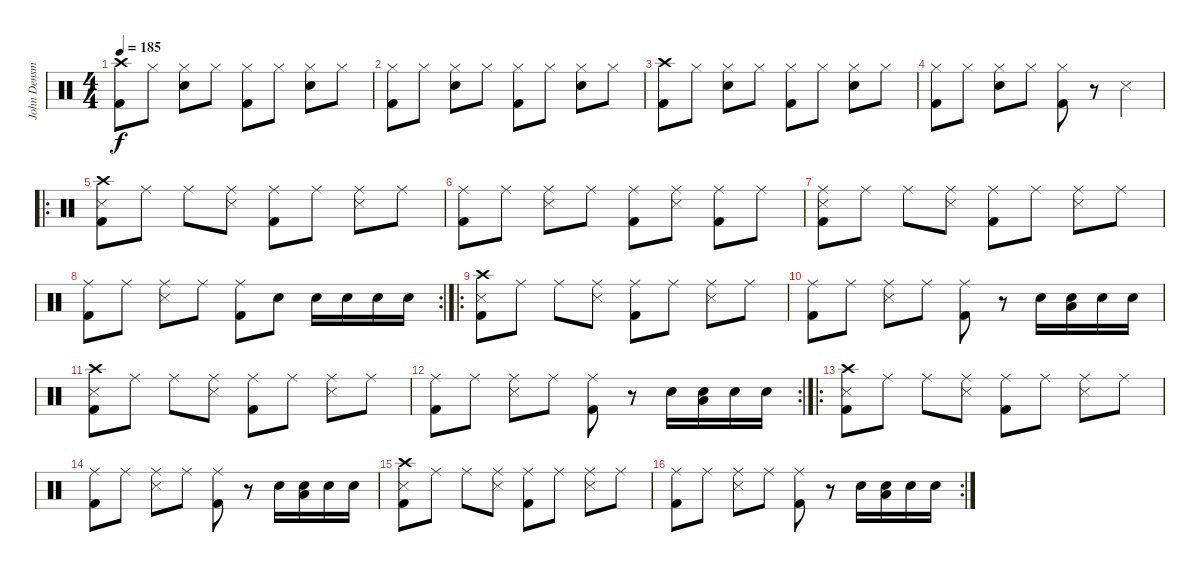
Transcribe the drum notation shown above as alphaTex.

\track ("John Densmore - Drums" "John Densm") {instrument percussion}
\staff {score}
\articulation defaults
\ts (4 4)
\tempo 185
\clef neutral
\ks c
("Crash high (hit)" "Kick (hit) 2").8{dy f} "Hi-Hat (closed)".8 ("Hi-Hat (closed)" "Snare (hit) 2").8 "Hi-Hat (closed)".8 ("Hi-Hat (closed)" "Kick (hit) 2").8 "Hi-Hat (closed)".8 ("Hi-Hat (closed)" "Snare (hit) 2").8 "Hi-Hat (closed)".8 |
("Hi-Hat (closed)" "Kick (hit) 2").8 "Hi-Hat (closed)".8 ("Hi-Hat (closed)" "Snare (hit) 2").8 "Hi-Hat (closed)".8 ("Hi-Hat (closed)" "Kick (hit) 2").8 "Hi-Hat (closed)".8 ("Hi-Hat (closed)" "Snare (hit) 2").8 "Hi-Hat (closed)".8 |
("Crash high (hit)" "Kick (hit) 2").8 "Hi-Hat (closed)".8 ("Hi-Hat (closed)" "Snare (hit) 2").8 "Hi-Hat (closed)".8 ("Hi-Hat (closed)" "Kick (hit) 2").8 "Hi-Hat (closed)".8 ("Hi-Hat (closed)" "Snare (hit) 2").8 "Hi-Hat (closed)".8 |
("Hi-Hat (closed)" "Kick (hit) 2").8 "Hi-Hat (closed)".8 ("Hi-Hat (closed)" "Snare (hit) 2").8 "Hi-Hat (closed)".8 ("Hi-Hat (closed)" "Kick (hit) 2").8 r.8 "Snare (side stick) 3".4 |
\ro
("Crash high (hit)" "Snare (side stick) 3" "Kick (hit) 2").8 "Ride (middle)".8 "Ride (middle)".8 ("Ride (middle)" "Snare (side stick) 3").8 ("Ride (middle)" "Kick (hit) 2").8 "Ride (middle)".8 ("Ride (middle)" "Snare (side stick) 3").8 "Ride (middle)".8 |
("Ride (middle)" "Kick (hit) 2").8 "Ride (middle)".8 ("Ride (middle)" "Snare (side stick) 3").8 "Ride (middle)".8 ("Ride (middle)" "Kick (hit) 2").8 ("Ride (middle)" "Snare (side stick) 3").8 ("Ride (middle)" "Kick (hit) 2").8 "Ride (middle)".8 |
("Ride (middle)" "Snare (side stick) 3" "Kick (hit) 2").8 "Ride (middle)".8 "Ride (middle)".8 ("Ride (middle)" "Snare (side stick) 3").8 ("Ride (middle)" "Kick (hit) 2").8 "Ride (middle)".8 ("Ride (middle)" "Snare (side stick) 3").8 "Ride (middle)".8 |
\rc 2
("Ride (middle)" "Kick (hit) 2").8 "Ride (middle)".8 ("Ride (middle)" "Snare (side stick) 3").8 "Ride (middle)".8 ("Ride (middle)" "Kick (hit) 2").8 "Snare (hit) 2".8 "Snare (hit) 2".16 "Snare (hit) 2".16 "Snare (hit) 2".16 "Snare (hit) 2".16 |
\ro
("Crash high (hit)" "Snare (side stick) 3" "Kick (hit) 2").8 "Ride (middle)".8 "Ride (middle)".8 ("Ride (middle)" "Snare (side stick) 3").8 ("Ride (middle)" "Kick (hit) 2").8 "Ride (middle)".8 ("Ride (middle)" "Snare (side stick) 3").8 "Ride (middle)".8 |
("Ride (middle)" "Kick (hit) 2").8 "Ride (middle)".8 ("Ride (middle)" "Snare (side stick) 3").8 "Ride (middle)".8 ("Ride (middle)" "Kick (hit) 2").8 r.8 "Snare (hit) 2".16 ("Snare (hit) 2" "Low Tom (hit)").16 "Snare (hit) 2".16 "Snare (hit) 2".16 |
("Crash high (hit)" "Snare (side stick) 3" "Kick (hit) 2").8 "Ride (middle)".8 "Ride (middle)".8 ("Ride (middle)" "Snare (side stick) 3").8 ("Ride (middle)" "Kick (hit) 2").8 "Ride (middle)".8 ("Ride (middle)" "Snare (side stick) 3").8 "Ride (middle)".8 |
\rc 2
("Ride (middle)" "Kick (hit) 2").8 "Ride (middle)".8 ("Ride (middle)" "Snare (side stick) 3").8 "Ride (middle)".8 ("Ride (middle)" "Kick (hit) 2").8 r.8 "Snare (hit) 2".16 ("Snare (hit) 2" "Low Tom (hit)").16 "Snare (hit) 2".16 "Snare (hit) 2".16 |
\ro
("Crash high (hit)" "Snare (side stick) 3" "Kick (hit) 2").8 "Ride (middle)".8 "Ride (middle)".8 ("Ride (middle)" "Snare (side stick) 3").8 ("Ride (middle)" "Kick (hit) 2").8 "Ride (middle)".8 ("Ride (middle)" "Snare (side stick) 3").8 "Ride (middle)".8 |
("Ride (middle)" "Kick (hit) 2").8 "Ride (middle)".8 ("Ride (middle)" "Snare (side stick) 3").8 "Ride (middle)".8 ("Ride (middle)" "Kick (hit) 2").8 r.8 "Snare (hit) 2".16 ("Snare (hit) 2" "Low Tom (hit)").16 "Snare (hit) 2".16 "Snare (hit) 2".16 |
("Crash high (hit)" "Snare (side stick) 3" "Kick (hit) 2").8 "Ride (middle)".8 "Ride (middle)".8 ("Ride (middle)" "Snare (side stick) 3").8 ("Ride (middle)" "Kick (hit) 2").8 "Ride (middle)".8 ("Ride (middle)" "Snare (side stick) 3").8 "Ride (middle)".8 |
\rc 2
("Ride (middle)" "Kick (hit) 2").8 "Ride (middle)".8 ("Ride (middle)" "Snare (side stick) 3").8 "Ride (middle)".8 ("Ride (middle)" "Kick (hit) 2").8 r.8 "Snare (hit) 2".16 ("Snare (hit) 2" "Low Tom (hit)").16 "Snare (hit) 2".16 "Snare (hit) 2".16
